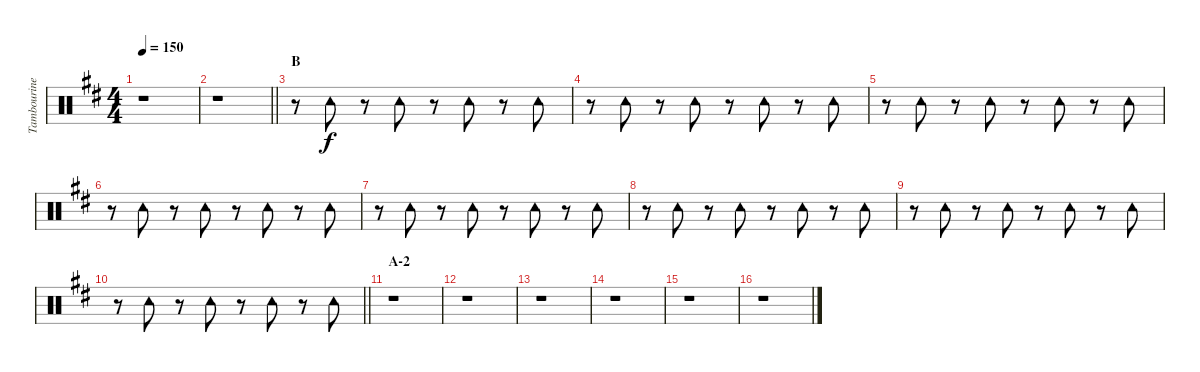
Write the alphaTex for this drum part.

\track ("Tambourine" "Tambourine") {instrument percussion}
\staff {score}
\articulation defaults
\ts (4 4)
\tempo 150
\clef neutral
\ks d
r.1{dy f} |
\barLineRight lightlight
r.1 |
\section ("" "B")
r.8 "Tambourine (hit)".8 r.8 "Tambourine (hit)".8 r.8 "Tambourine (hit)".8 r.8 "Tambourine (hit)".8 |
r.8 "Tambourine (hit)".8 r.8 "Tambourine (hit)".8 r.8 "Tambourine (hit)".8 r.8 "Tambourine (hit)".8 |
r.8 "Tambourine (hit)".8 r.8 "Tambourine (hit)".8 r.8 "Tambourine (hit)".8 r.8 "Tambourine (hit)".8 |
r.8 "Tambourine (hit)".8 r.8 "Tambourine (hit)".8 r.8 "Tambourine (hit)".8 r.8 "Tambourine (hit)".8 |
r.8 "Tambourine (hit)".8 r.8 "Tambourine (hit)".8 r.8 "Tambourine (hit)".8 r.8 "Tambourine (hit)".8 |
r.8 "Tambourine (hit)".8 r.8 "Tambourine (hit)".8 r.8 "Tambourine (hit)".8 r.8 "Tambourine (hit)".8 |
r.8 "Tambourine (hit)".8 r.8 "Tambourine (hit)".8 r.8 "Tambourine (hit)".8 r.8 "Tambourine (hit)".8 |
\barLineRight lightlight
r.8 "Tambourine (hit)".8 r.8 "Tambourine (hit)".8 r.8 "Tambourine (hit)".8 r.8 "Tambourine (hit)".8 |
\section ("" "A-2")
r.1 |
r.1 |
r.1 |
r.1 |
r.1 |
r.1
